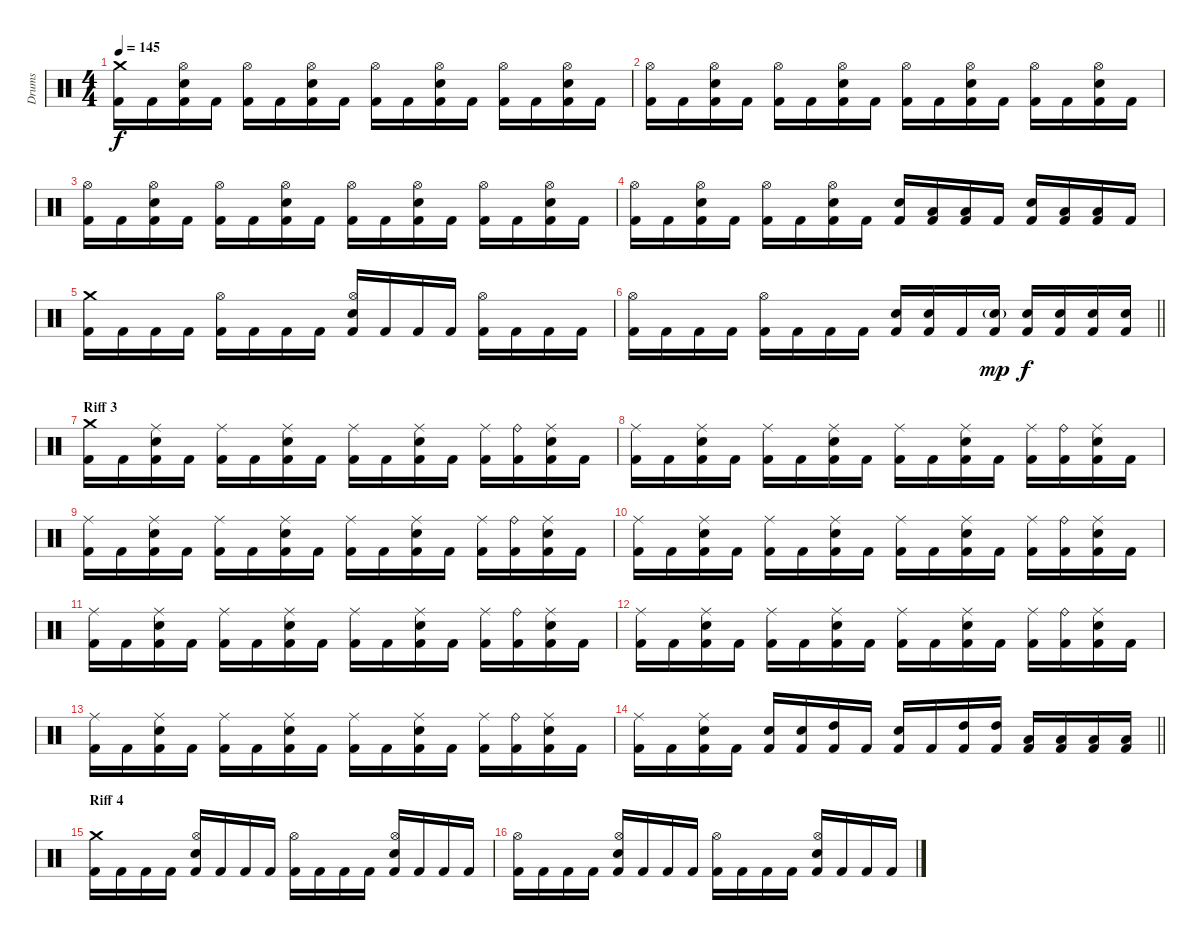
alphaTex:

\track ("Drums" "Drums") {instrument percussion}
\staff {score}
\articulation defaults
\ts (4 4)
\tempo 145
\clef neutral
\ks c
("Crash medium (hit)" "Kick (hit) 2").16{dy f} "Kick (hit) 2".16 ("Hi-Hat (open)" "Electric Snare (hit)" "Kick (hit) 2").16 "Kick (hit) 2".16 ("Hi-Hat (open)" "Kick (hit) 2").16 "Kick (hit) 2".16 ("Hi-Hat (open)" "Electric Snare (hit)" "Kick (hit) 2").16 "Kick (hit) 2".16 ("Hi-Hat (open)" "Kick (hit) 2").16 "Kick (hit) 2".16 ("Hi-Hat (open)" "Electric Snare (hit)" "Kick (hit) 2").16 "Kick (hit) 2".16 ("Hi-Hat (open)" "Kick (hit) 2").16 "Kick (hit) 2".16 ("Hi-Hat (open)" "Electric Snare (hit)" "Kick (hit) 2").16 "Kick (hit) 2".16 |
("Hi-Hat (open)" "Kick (hit) 2").16 "Kick (hit) 2".16 ("Hi-Hat (open)" "Electric Snare (hit)" "Kick (hit) 2").16 "Kick (hit) 2".16 ("Hi-Hat (open)" "Kick (hit) 2").16 "Kick (hit) 2".16 ("Hi-Hat (open)" "Electric Snare (hit)" "Kick (hit) 2").16 "Kick (hit) 2".16 ("Hi-Hat (open)" "Kick (hit) 2").16 "Kick (hit) 2".16 ("Hi-Hat (open)" "Electric Snare (hit)" "Kick (hit) 2").16 "Kick (hit) 2".16 ("Hi-Hat (open)" "Kick (hit) 2").16 "Kick (hit) 2".16 ("Hi-Hat (open)" "Electric Snare (hit)" "Kick (hit) 2").16 "Kick (hit) 2".16 |
("Hi-Hat (open)" "Kick (hit) 2").16 "Kick (hit) 2".16 ("Hi-Hat (open)" "Electric Snare (hit)" "Kick (hit) 2").16 "Kick (hit) 2".16 ("Hi-Hat (open)" "Kick (hit) 2").16 "Kick (hit) 2".16 ("Hi-Hat (open)" "Electric Snare (hit)" "Kick (hit) 2").16 "Kick (hit) 2".16 ("Hi-Hat (open)" "Kick (hit) 2").16 "Kick (hit) 2".16 ("Hi-Hat (open)" "Electric Snare (hit)" "Kick (hit) 2").16 "Kick (hit) 2".16 ("Hi-Hat (open)" "Kick (hit) 2").16 "Kick (hit) 2".16 ("Hi-Hat (open)" "Electric Snare (hit)" "Kick (hit) 2").16 "Kick (hit) 2".16 |
("Hi-Hat (open)" "Kick (hit) 2").16 "Kick (hit) 2".16 ("Hi-Hat (open)" "Electric Snare (hit)" "Kick (hit) 2").16 "Kick (hit) 2".16 ("Hi-Hat (open)" "Kick (hit) 2").16 "Kick (hit) 2".16 ("Hi-Hat (open)" "Electric Snare (hit)" "Kick (hit) 2").16 "Kick (hit) 2".16 ("Electric Snare (hit)" "Kick (hit) 2").16 ("Low Tom (hit)" "Kick (hit) 2").16 ("Low Tom (hit)" "Kick (hit) 2").16 "Kick (hit) 2".16 ("Electric Snare (hit)" "Kick (hit) 2").16 ("Low Tom (hit)" "Kick (hit) 2").16 ("Low Tom (hit)" "Kick (hit) 2").16 "Kick (hit) 2".16 |
("Crash medium (hit)" "Kick (hit) 2").16 "Kick (hit) 2".16 "Kick (hit) 2".16 "Kick (hit) 2".16 ("Hi-Hat (open)" "Kick (hit) 2").16 "Kick (hit) 2".16 "Kick (hit) 2".16 "Kick (hit) 2".16 ("Hi-Hat (open)" "Electric Snare (hit)" "Kick (hit) 2").16 "Kick (hit) 2".16 "Kick (hit) 2".16 "Kick (hit) 2".16 ("Hi-Hat (open)" "Kick (hit) 2").16 "Kick (hit) 2".16 "Kick (hit) 2".16 "Kick (hit) 2".16 |
\barLineRight lightlight
("Hi-Hat (open)" "Kick (hit) 2").16 "Kick (hit) 2".16 "Kick (hit) 2".16 "Kick (hit) 2".16 ("Hi-Hat (open)" "Kick (hit) 2").16 "Kick (hit) 2".16 "Kick (hit) 2".16 "Kick (hit) 2".16 ("Electric Snare (hit)" "Kick (hit) 2").16 ("Electric Snare (hit)" "Kick (hit) 2").16 "Kick (hit) 2".16 ("Electric Snare (hit)"{g} "Kick (hit) 2").16{dy mp} ("Electric Snare (hit)" "Kick (hit) 2").16{dy f} ("Electric Snare (hit)" "Kick (hit) 2").16 ("Electric Snare (hit)" "Kick (hit) 2").16 ("Electric Snare (hit)" "Kick (hit) 2").16 |
\section ("" "Riff 3")
("Crash medium (hit)" "Kick (hit) 2").16 "Kick (hit) 2".16 ("Ride (middle)" "Electric Snare (hit)" "Kick (hit) 2").16 "Kick (hit) 2".16 ("Ride (middle)" "Kick (hit) 2").16 "Kick (hit) 2".16 ("Ride (middle)" "Electric Snare (hit)" "Kick (hit) 2").16 "Kick (hit) 2".16 ("Ride (middle)" "Kick (hit) 2").16 "Kick (hit) 2".16 ("Ride (middle)" "Electric Snare (hit)" "Kick (hit) 2").16 "Kick (hit) 2".16 ("Ride (middle)" "Kick (hit) 2").16 ("Ride (bell)" "Kick (hit) 2").16 ("Ride (middle)" "Electric Snare (hit)" "Kick (hit) 2").16 "Kick (hit) 2".16 |
("Ride (middle)" "Kick (hit) 2").16 "Kick (hit) 2".16 ("Ride (middle)" "Electric Snare (hit)" "Kick (hit) 2").16 "Kick (hit) 2".16 ("Ride (middle)" "Kick (hit) 2").16 "Kick (hit) 2".16 ("Ride (middle)" "Electric Snare (hit)" "Kick (hit) 2").16 "Kick (hit) 2".16 ("Ride (middle)" "Kick (hit) 2").16 "Kick (hit) 2".16 ("Ride (middle)" "Electric Snare (hit)" "Kick (hit) 2").16 "Kick (hit) 2".16 ("Ride (middle)" "Kick (hit) 2").16 ("Ride (bell)" "Kick (hit) 2").16 ("Ride (middle)" "Electric Snare (hit)" "Kick (hit) 2").16 "Kick (hit) 2".16 |
("Ride (middle)" "Kick (hit) 2").16 "Kick (hit) 2".16 ("Ride (middle)" "Electric Snare (hit)" "Kick (hit) 2").16 "Kick (hit) 2".16 ("Ride (middle)" "Kick (hit) 2").16 "Kick (hit) 2".16 ("Ride (middle)" "Electric Snare (hit)" "Kick (hit) 2").16 "Kick (hit) 2".16 ("Ride (middle)" "Kick (hit) 2").16 "Kick (hit) 2".16 ("Ride (middle)" "Electric Snare (hit)" "Kick (hit) 2").16 "Kick (hit) 2".16 ("Ride (middle)" "Kick (hit) 2").16 ("Ride (bell)" "Kick (hit) 2").16 ("Ride (middle)" "Electric Snare (hit)" "Kick (hit) 2").16 "Kick (hit) 2".16 |
("Ride (middle)" "Kick (hit) 2").16 "Kick (hit) 2".16 ("Ride (middle)" "Electric Snare (hit)" "Kick (hit) 2").16 "Kick (hit) 2".16 ("Ride (middle)" "Kick (hit) 2").16 "Kick (hit) 2".16 ("Ride (middle)" "Electric Snare (hit)" "Kick (hit) 2").16 "Kick (hit) 2".16 ("Ride (middle)" "Kick (hit) 2").16 "Kick (hit) 2".16 ("Ride (middle)" "Electric Snare (hit)" "Kick (hit) 2").16 "Kick (hit) 2".16 ("Ride (middle)" "Kick (hit) 2").16 ("Ride (bell)" "Kick (hit) 2").16 ("Ride (middle)" "Electric Snare (hit)" "Kick (hit) 2").16 "Kick (hit) 2".16 |
("Ride (middle)" "Kick (hit) 2").16 "Kick (hit) 2".16 ("Ride (middle)" "Electric Snare (hit)" "Kick (hit) 2").16 "Kick (hit) 2".16 ("Ride (middle)" "Kick (hit) 2").16 "Kick (hit) 2".16 ("Ride (middle)" "Electric Snare (hit)" "Kick (hit) 2").16 "Kick (hit) 2".16 ("Ride (middle)" "Kick (hit) 2").16 "Kick (hit) 2".16 ("Ride (middle)" "Electric Snare (hit)" "Kick (hit) 2").16 "Kick (hit) 2".16 ("Ride (middle)" "Kick (hit) 2").16 ("Ride (bell)" "Kick (hit) 2").16 ("Ride (middle)" "Electric Snare (hit)" "Kick (hit) 2").16 "Kick (hit) 2".16 |
("Ride (middle)" "Kick (hit) 2").16 "Kick (hit) 2".16 ("Ride (middle)" "Electric Snare (hit)" "Kick (hit) 2").16 "Kick (hit) 2".16 ("Ride (middle)" "Kick (hit) 2").16 "Kick (hit) 2".16 ("Ride (middle)" "Electric Snare (hit)" "Kick (hit) 2").16 "Kick (hit) 2".16 ("Ride (middle)" "Kick (hit) 2").16 "Kick (hit) 2".16 ("Ride (middle)" "Electric Snare (hit)" "Kick (hit) 2").16 "Kick (hit) 2".16 ("Ride (middle)" "Kick (hit) 2").16 ("Ride (bell)" "Kick (hit) 2").16 ("Ride (middle)" "Electric Snare (hit)" "Kick (hit) 2").16 "Kick (hit) 2".16 |
("Ride (middle)" "Kick (hit) 2").16 "Kick (hit) 2".16 ("Ride (middle)" "Electric Snare (hit)" "Kick (hit) 2").16 "Kick (hit) 2".16 ("Ride (middle)" "Kick (hit) 2").16 "Kick (hit) 2".16 ("Ride (middle)" "Electric Snare (hit)" "Kick (hit) 2").16 "Kick (hit) 2".16 ("Ride (middle)" "Kick (hit) 2").16 "Kick (hit) 2".16 ("Ride (middle)" "Electric Snare (hit)" "Kick (hit) 2").16 "Kick (hit) 2".16 ("Ride (middle)" "Kick (hit) 2").16 ("Ride (bell)" "Kick (hit) 2").16 ("Ride (middle)" "Electric Snare (hit)" "Kick (hit) 2").16 "Kick (hit) 2".16 |
\barLineRight lightlight
("Ride (middle)" "Kick (hit) 2").16 "Kick (hit) 2".16 ("Ride (middle)" "Electric Snare (hit)" "Kick (hit) 2").16 "Kick (hit) 2".16 ("Kick (hit) 2" "Electric Snare (hit)").16 ("Kick (hit) 2" "Electric Snare (hit)").16 ("Kick (hit) 2" "High Tom (hit)").16 "Kick (hit) 2".16 ("Kick (hit) 2" "Electric Snare (hit)").16 "Kick (hit) 2".16 ("Kick (hit) 2" "High Tom (hit)").16 ("Kick (hit) 2" "High Tom (hit)").16 ("Kick (hit) 2" "Low Tom (hit)").16 ("Kick (hit) 2" "Low Tom (hit)").16 ("Kick (hit) 2" "Low Floor Tom (hit)").16 ("Kick (hit) 2" "Low Floor Tom (hit)").16 |
\section ("" "Riff 4")
("Crash medium (hit)" "Kick (hit) 2").16 "Kick (hit) 2".16 "Kick (hit) 2".16 "Kick (hit) 2".16 ("Hi-Hat (open)" "Electric Snare (hit)" "Kick (hit) 2").16 "Kick (hit) 2".16 "Kick (hit) 2".16 "Kick (hit) 2".16 ("Hi-Hat (open)" "Kick (hit) 2").16 "Kick (hit) 2".16 "Kick (hit) 2".16 "Kick (hit) 2".16 ("Hi-Hat (open)" "Electric Snare (hit)" "Kick (hit) 2").16 "Kick (hit) 2".16 "Kick (hit) 2".16 "Kick (hit) 2".16 |
("Hi-Hat (open)" "Kick (hit) 2").16 "Kick (hit) 2".16 "Kick (hit) 2".16 "Kick (hit) 2".16 ("Hi-Hat (open)" "Electric Snare (hit)" "Kick (hit) 2").16 "Kick (hit) 2".16 "Kick (hit) 2".16 "Kick (hit) 2".16 ("Hi-Hat (open)" "Kick (hit) 2").16 "Kick (hit) 2".16 "Kick (hit) 2".16 "Kick (hit) 2".16 ("Hi-Hat (open)" "Electric Snare (hit)" "Kick (hit) 2").16 "Kick (hit) 2".16 "Kick (hit) 2".16 "Kick (hit) 2".16
